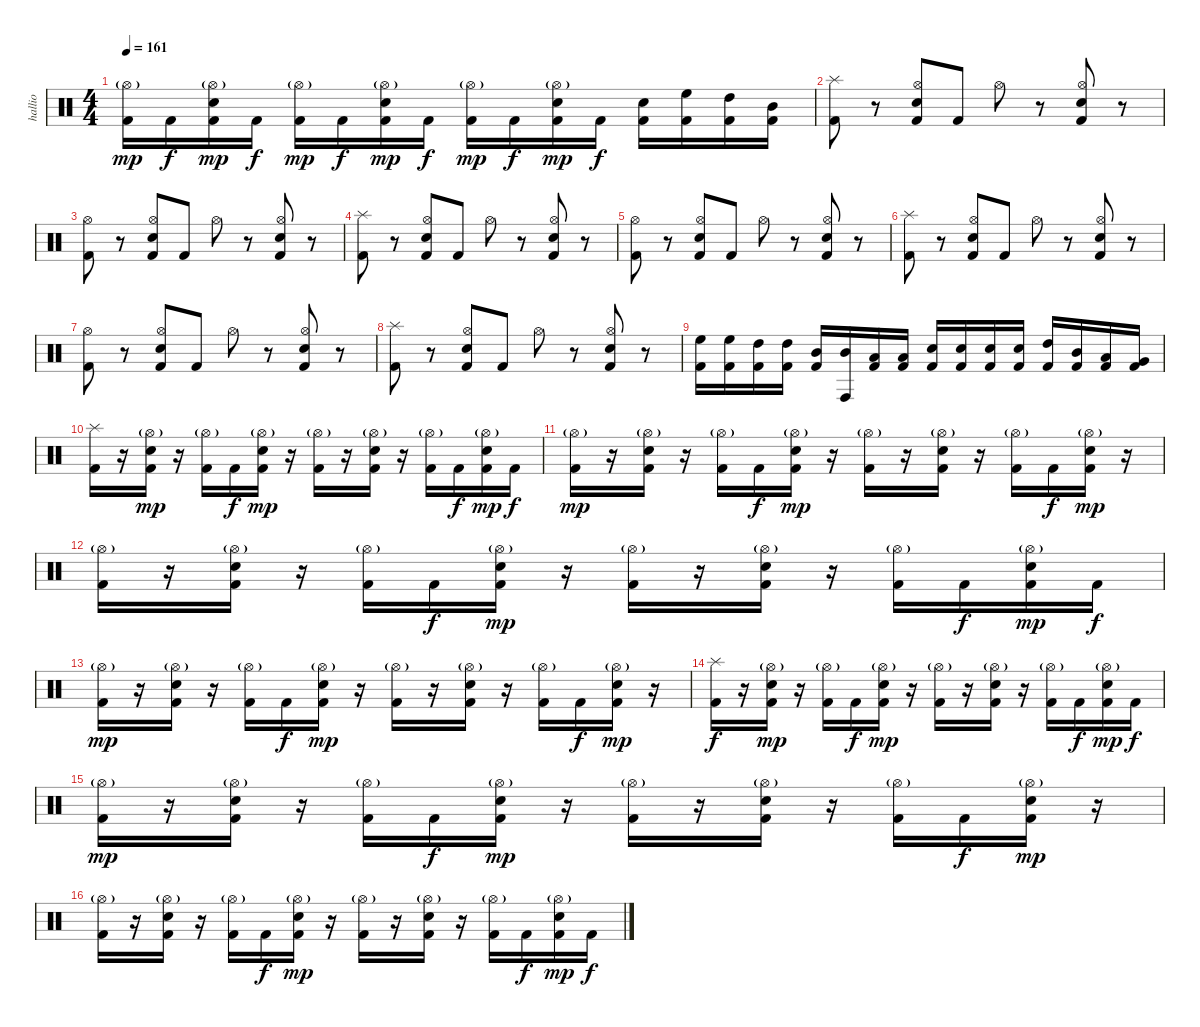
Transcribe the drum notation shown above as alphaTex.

\track ("hallio" "hallio") {instrument percussion}
\staff {score}
\articulation defaults
\ts (4 4)
\tempo 161
\clef neutral
\ks c
("Kick (hit) 2" "Hi-Hat (open)"{g}).16{dy mp} "Kick (hit) 2".16{dy f} ("Kick (hit) 2" "Snare (hit) 2" "Hi-Hat (open)"{g}).16{dy mp} "Kick (hit) 2".16{dy f} ("Kick (hit) 2" "Hi-Hat (open)"{g}).16{dy mp} "Kick (hit) 2".16{dy f} ("Kick (hit) 2" "Snare (hit) 2" "Hi-Hat (open)"{g}).16{dy mp} "Kick (hit) 2".16{dy f} ("Kick (hit) 2" "Hi-Hat (open)"{g}).16{dy mp} "Kick (hit) 2".16{dy f} ("Kick (hit) 2" "Snare (hit) 2" "Hi-Hat (open)"{g}).16{dy mp} "Kick (hit) 2".16{dy f} ("Kick (hit) 2" "Snare (hit) 2").16 ("Kick (hit) 2" "High Floor Tom (hit)").16 ("Kick (hit) 2" "High Tom (hit)").16 ("Kick (hit) 2" "Mid Tom (hit)").16 |
("Kick (hit) 2" "Splash (hit)").8 r.8 ("Kick (hit) 2" "Hi-Hat (open)" "Snare (hit) 2").8 "Kick (hit) 2".8 "Hi-Hat (open)".8 r.8 ("Kick (hit) 2" "Hi-Hat (open)" "Snare (hit) 2").8 r.8 |
("Kick (hit) 2" "Hi-Hat (open)").8 r.8 ("Kick (hit) 2" "Hi-Hat (open)" "Snare (hit) 2").8 "Kick (hit) 2".8 "Hi-Hat (open)".8 r.8 ("Kick (hit) 2" "Hi-Hat (open)" "Snare (hit) 2").8 r.8 |
("Kick (hit) 2" "Splash (hit)").8 r.8 ("Kick (hit) 2" "Hi-Hat (open)" "Snare (hit) 2").8 "Kick (hit) 2".8 "Hi-Hat (open)".8 r.8 ("Kick (hit) 2" "Hi-Hat (open)" "Snare (hit) 2").8 r.8 |
("Kick (hit) 2" "Hi-Hat (open)").8 r.8 ("Kick (hit) 2" "Hi-Hat (open)" "Snare (hit) 2").8 "Kick (hit) 2".8 "Hi-Hat (open)".8 r.8 ("Kick (hit) 2" "Hi-Hat (open)" "Snare (hit) 2").8 r.8 |
("Kick (hit) 2" "Splash (hit)").8 r.8 ("Kick (hit) 2" "Hi-Hat (open)" "Snare (hit) 2").8 "Kick (hit) 2".8 "Hi-Hat (open)".8 r.8 ("Kick (hit) 2" "Hi-Hat (open)" "Snare (hit) 2").8 r.8 |
("Kick (hit) 2" "Hi-Hat (open)").8 r.8 ("Kick (hit) 2" "Hi-Hat (open)" "Snare (hit) 2").8 "Kick (hit) 2".8 "Hi-Hat (open)".8 r.8 ("Kick (hit) 2" "Hi-Hat (open)" "Snare (hit) 2").8 r.8 |
("Kick (hit) 2" "Splash (hit)").8 r.8 ("Kick (hit) 2" "Hi-Hat (open)" "Snare (hit) 2").8 "Kick (hit) 2".8 "Hi-Hat (open)".8 r.8 ("Kick (hit) 2" "Hi-Hat (open)" "Snare (hit) 2").8 r.8 |
("High Floor Tom (hit)" "Kick (hit) 2").16 ("High Floor Tom (hit)" "Kick (hit) 2").16 ("High Tom (hit)" "Kick (hit) 2").16 ("High Tom (hit)" "Kick (hit) 2").16 ("Mid Tom (hit)" "Kick (hit) 2").16 ("Mid Tom (hit)" "Conga high (hit)").16 ("Low Tom (hit)" "Kick (hit) 2").16 ("Low Tom (hit)" "Kick (hit) 2").16 ("Snare (hit) 2" "Kick (hit) 2").16 ("Snare (hit) 2" "Kick (hit) 2").16 ("Snare (hit) 2" "Kick (hit) 2").16 ("Snare (hit) 2" "Kick (hit) 2").16 ("High Tom (hit)" "Kick (hit) 2").16 ("Mid Tom (hit)" "Kick (hit) 2").16 ("Low Tom (hit)" "Kick (hit) 2").16 ("Very Low Tom (hit)" "Kick (hit) 2").16 |
("Kick (hit) 2" "Splash (hit)").16 r.16 ("Kick (hit) 2" "Snare (hit) 2" "Hi-Hat (open)"{g}).16{dy mp} r.16 ("Kick (hit) 2" "Hi-Hat (open)"{g}).16 "Kick (hit) 2".16{dy f} ("Kick (hit) 2" "Snare (hit) 2" "Hi-Hat (open)"{g}).16{dy mp} r.16 ("Kick (hit) 2" "Hi-Hat (open)"{g}).16 r.16 ("Kick (hit) 2" "Snare (hit) 2" "Hi-Hat (open)"{g}).16 r.16 ("Kick (hit) 2" "Hi-Hat (open)"{g}).16 "Kick (hit) 2".16{dy f} ("Kick (hit) 2" "Snare (hit) 2" "Hi-Hat (open)"{g}).16{dy mp} "Kick (hit) 2".16{dy f} |
("Kick (hit) 2" "Hi-Hat (open)"{g}).16{dy mp} r.16 ("Kick (hit) 2" "Snare (hit) 2" "Hi-Hat (open)"{g}).16 r.16 ("Kick (hit) 2" "Hi-Hat (open)"{g}).16 "Kick (hit) 2".16{dy f} ("Kick (hit) 2" "Snare (hit) 2" "Hi-Hat (open)"{g}).16{dy mp} r.16 ("Kick (hit) 2" "Hi-Hat (open)"{g}).16 r.16 ("Kick (hit) 2" "Snare (hit) 2" "Hi-Hat (open)"{g}).16 r.16 ("Kick (hit) 2" "Hi-Hat (open)"{g}).16 "Kick (hit) 2".16{dy f} ("Kick (hit) 2" "Snare (hit) 2" "Hi-Hat (open)"{g}).16{dy mp} r.16 |
("Kick (hit) 2" "Hi-Hat (open)"{g}).16 r.16 ("Kick (hit) 2" "Snare (hit) 2" "Hi-Hat (open)"{g}).16 r.16 ("Kick (hit) 2" "Hi-Hat (open)"{g}).16 "Kick (hit) 2".16{dy f} ("Kick (hit) 2" "Snare (hit) 2" "Hi-Hat (open)"{g}).16{dy mp} r.16 ("Kick (hit) 2" "Hi-Hat (open)"{g}).16 r.16 ("Kick (hit) 2" "Snare (hit) 2" "Hi-Hat (open)"{g}).16 r.16 ("Kick (hit) 2" "Hi-Hat (open)"{g}).16 "Kick (hit) 2".16{dy f} ("Kick (hit) 2" "Snare (hit) 2" "Hi-Hat (open)"{g}).16{dy mp} "Kick (hit) 2".16{dy f} |
("Kick (hit) 2" "Hi-Hat (open)"{g}).16{dy mp} r.16 ("Kick (hit) 2" "Snare (hit) 2" "Hi-Hat (open)"{g}).16 r.16 ("Kick (hit) 2" "Hi-Hat (open)"{g}).16 "Kick (hit) 2".16{dy f} ("Kick (hit) 2" "Snare (hit) 2" "Hi-Hat (open)"{g}).16{dy mp} r.16 ("Kick (hit) 2" "Hi-Hat (open)"{g}).16 r.16 ("Kick (hit) 2" "Snare (hit) 2" "Hi-Hat (open)"{g}).16 r.16 ("Kick (hit) 2" "Hi-Hat (open)"{g}).16 "Kick (hit) 2".16{dy f} ("Kick (hit) 2" "Snare (hit) 2" "Hi-Hat (open)"{g}).16{dy mp} r.16 |
("Kick (hit) 2" "Splash (hit)").16{dy f} r.16 ("Kick (hit) 2" "Snare (hit) 2" "Hi-Hat (open)"{g}).16{dy mp} r.16 ("Kick (hit) 2" "Hi-Hat (open)"{g}).16 "Kick (hit) 2".16{dy f} ("Kick (hit) 2" "Snare (hit) 2" "Hi-Hat (open)"{g}).16{dy mp} r.16 ("Kick (hit) 2" "Hi-Hat (open)"{g}).16 r.16 ("Kick (hit) 2" "Snare (hit) 2" "Hi-Hat (open)"{g}).16 r.16 ("Kick (hit) 2" "Hi-Hat (open)"{g}).16 "Kick (hit) 2".16{dy f} ("Kick (hit) 2" "Snare (hit) 2" "Hi-Hat (open)"{g}).16{dy mp} "Kick (hit) 2".16{dy f} |
("Kick (hit) 2" "Hi-Hat (open)"{g}).16{dy mp} r.16 ("Kick (hit) 2" "Snare (hit) 2" "Hi-Hat (open)"{g}).16 r.16 ("Kick (hit) 2" "Hi-Hat (open)"{g}).16 "Kick (hit) 2".16{dy f} ("Kick (hit) 2" "Snare (hit) 2" "Hi-Hat (open)"{g}).16{dy mp} r.16 ("Kick (hit) 2" "Hi-Hat (open)"{g}).16 r.16 ("Kick (hit) 2" "Snare (hit) 2" "Hi-Hat (open)"{g}).16 r.16 ("Kick (hit) 2" "Hi-Hat (open)"{g}).16 "Kick (hit) 2".16{dy f} ("Kick (hit) 2" "Snare (hit) 2" "Hi-Hat (open)"{g}).16{dy mp} r.16 |
("Kick (hit) 2" "Hi-Hat (open)"{g}).16 r.16 ("Kick (hit) 2" "Snare (hit) 2" "Hi-Hat (open)"{g}).16 r.16 ("Kick (hit) 2" "Hi-Hat (open)"{g}).16 "Kick (hit) 2".16{dy f} ("Kick (hit) 2" "Snare (hit) 2" "Hi-Hat (open)"{g}).16{dy mp} r.16 ("Kick (hit) 2" "Hi-Hat (open)"{g}).16 r.16 ("Kick (hit) 2" "Snare (hit) 2" "Hi-Hat (open)"{g}).16 r.16 ("Kick (hit) 2" "Hi-Hat (open)"{g}).16 "Kick (hit) 2".16{dy f} ("Kick (hit) 2" "Snare (hit) 2" "Hi-Hat (open)"{g}).16{dy mp} "Kick (hit) 2".16{dy f}
